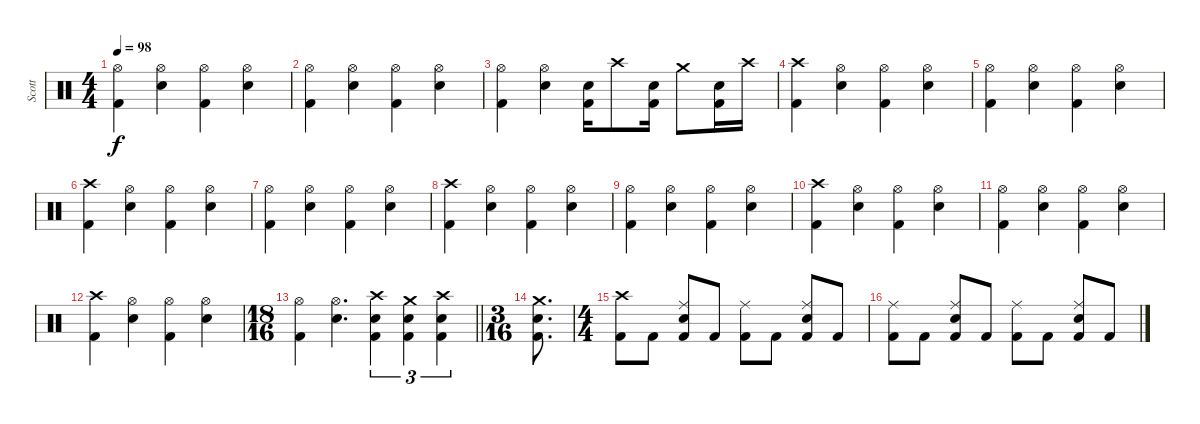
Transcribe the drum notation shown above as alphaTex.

\track ("Scott" "Scott") {instrument percussion}
\staff {score}
\articulation defaults
\ts (4 4)
\tempo 98
\clef neutral
\ks c
("Hi-Hat (open)" "Kick (hit) 2").4{dy f} ("Hi-Hat (open)" "Snare (hit) 2").4 ("Hi-Hat (open)" "Kick (hit) 2").4 ("Hi-Hat (open)" "Snare (hit) 2").4 |
("Hi-Hat (open)" "Kick (hit) 2").4 ("Hi-Hat (open)" "Snare (hit) 2").4 ("Hi-Hat (open)" "Kick (hit) 2").4 ("Hi-Hat (open)" "Snare (hit) 2").4 |
("Hi-Hat (open)" "Kick (hit) 2").4 ("Hi-Hat (open)" "Snare (hit) 2").4 ("Snare (hit) 2" "Kick (hit) 2").16 "Crash high (hit)".8 ("Snare (hit) 2" "Kick (hit) 2").16 "Crash medium (hit)".8 ("Snare (hit) 2" "Kick (hit) 2").16 "Crash high (hit)".16 |
("Crash high (hit)" "Kick (hit) 2").4 ("Hi-Hat (open)" "Snare (hit) 2").4 ("Hi-Hat (open)" "Kick (hit) 2").4 ("Hi-Hat (open)" "Snare (hit) 2").4 |
("Hi-Hat (open)" "Kick (hit) 2").4 ("Hi-Hat (open)" "Snare (hit) 2").4 ("Hi-Hat (open)" "Kick (hit) 2").4 ("Hi-Hat (open)" "Snare (hit) 2").4 |
("Crash high (hit)" "Kick (hit) 2").4 ("Hi-Hat (open)" "Snare (hit) 2").4 ("Hi-Hat (open)" "Kick (hit) 2").4 ("Hi-Hat (open)" "Snare (hit) 2").4 |
("Hi-Hat (open)" "Kick (hit) 2").4 ("Hi-Hat (open)" "Snare (hit) 2").4 ("Hi-Hat (open)" "Kick (hit) 2").4 ("Hi-Hat (open)" "Snare (hit) 2").4 |
("Crash high (hit)" "Kick (hit) 2").4 ("Hi-Hat (open)" "Snare (hit) 2").4 ("Hi-Hat (open)" "Kick (hit) 2").4 ("Hi-Hat (open)" "Snare (hit) 2").4 |
("Hi-Hat (open)" "Kick (hit) 2").4 ("Hi-Hat (open)" "Snare (hit) 2").4 ("Hi-Hat (open)" "Kick (hit) 2").4 ("Hi-Hat (open)" "Snare (hit) 2").4 |
("Crash high (hit)" "Kick (hit) 2").4 ("Hi-Hat (open)" "Snare (hit) 2").4 ("Hi-Hat (open)" "Kick (hit) 2").4 ("Hi-Hat (open)" "Snare (hit) 2").4 |
("Hi-Hat (open)" "Kick (hit) 2").4 ("Hi-Hat (open)" "Snare (hit) 2").4 ("Hi-Hat (open)" "Kick (hit) 2").4 ("Hi-Hat (open)" "Snare (hit) 2").4 |
("Crash high (hit)" "Kick (hit) 2").4 ("Hi-Hat (open)" "Snare (hit) 2").4 ("Hi-Hat (open)" "Kick (hit) 2").4 ("Hi-Hat (open)" "Snare (hit) 2").4 |
\ts (18 16)
\barLineRight lightlight
("Hi-Hat (open)" "Kick (hit) 2").4 ("Hi-Hat (open)" "Snare (hit) 2").4{d} ("Crash high (hit)" "Snare (hit) 2" "Kick (hit) 2").4{tu (3 2)} ("Crash medium (hit)" "Snare (hit) 2" "Kick (hit) 2").4{tu (3 2)} ("Crash high (hit)" "Snare (hit) 2" "Kick (hit) 2").4{tu (3 2)} |
\ts (3 16)
("Crash medium (hit)" "Snare (hit) 2" "Kick (hit) 2").8{d} |
\ts (4 4)
("Crash high (hit)" "Kick (hit) 2").8 "Kick (hit) 2".8 ("Ride (middle)" "Electric Snare (hit)" "Kick (hit) 2").8 "Kick (hit) 2".8 ("Ride (middle)" "Kick (hit) 2").8 "Kick (hit) 2".8 ("Ride (middle)" "Electric Snare (hit)" "Kick (hit) 2").8 "Kick (hit) 2".8 |
("Ride (middle)" "Kick (hit) 2").8 "Kick (hit) 2".8 ("Ride (middle)" "Electric Snare (hit)" "Kick (hit) 2").8 "Kick (hit) 2".8 ("Ride (middle)" "Kick (hit) 2").8 "Kick (hit) 2".8 ("Ride (middle)" "Electric Snare (hit)" "Kick (hit) 2").8 "Kick (hit) 2".8
